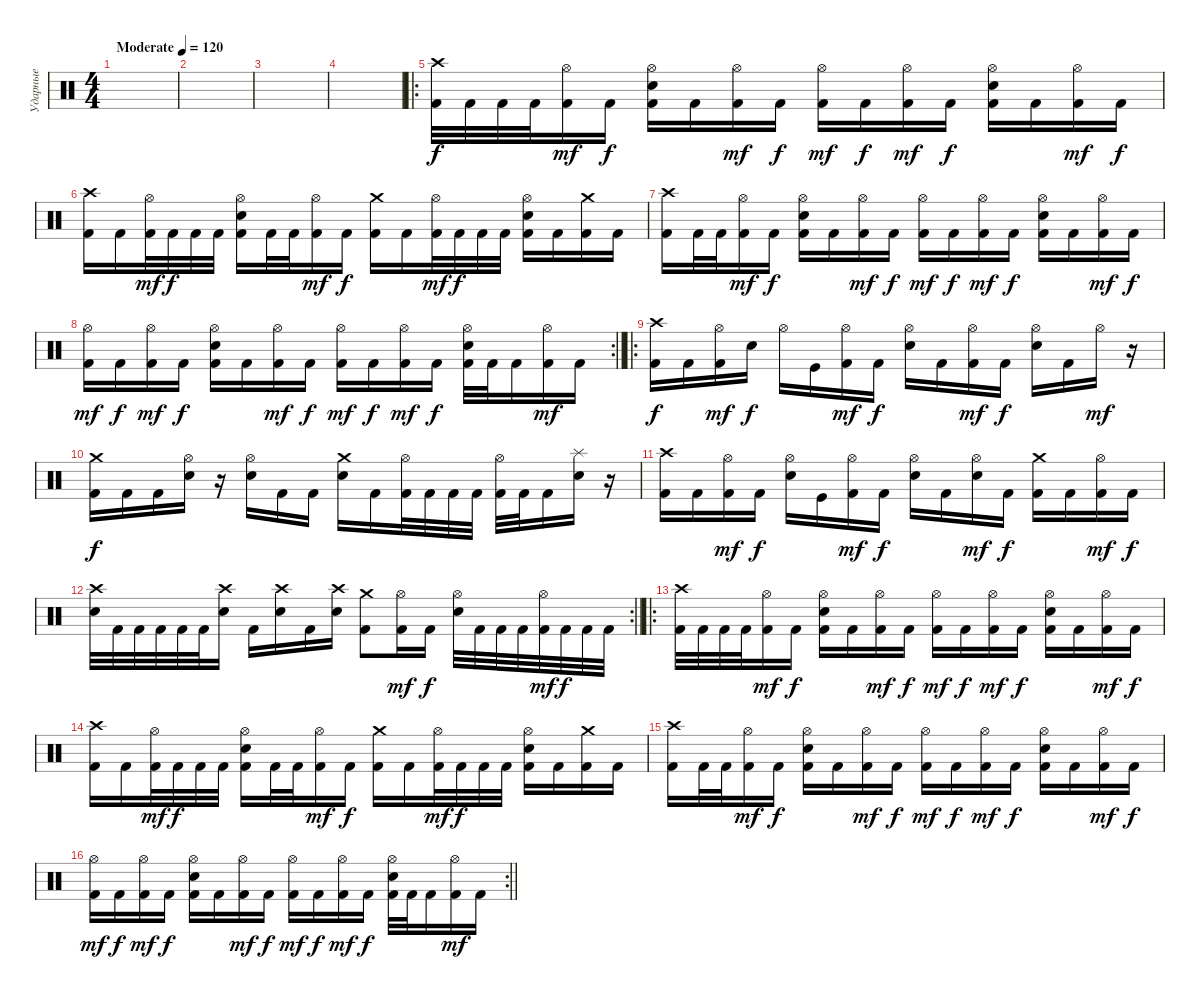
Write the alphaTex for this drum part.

\track ("Ударные" "Ударные") {instrument percussion}
\staff {score}
\articulation defaults
\ts (4 4)
\tempo (120 "Moderate")
\clef neutral
\ks c
|
|
|
|
\ro
("Crash high (hit)" "Kick (hit) 2").32 "Kick (hit) 2".32 "Kick (hit) 2".32 "Kick (hit) 2".32 ("Hi-Hat (open)" "Kick (hit) 2").16{dy mf} "Kick (hit) 2".16{dy f} ("Hi-Hat (open)" "Electric Snare (hit)" "Kick (hit) 2").16 "Kick (hit) 2".16 ("Hi-Hat (open)" "Kick (hit) 2").16{dy mf} "Kick (hit) 2".16{dy f} ("Hi-Hat (open)" "Kick (hit) 2").16{dy mf} "Kick (hit) 2".16{dy f} ("Hi-Hat (open)" "Kick (hit) 2").16{dy mf} "Kick (hit) 2".16{dy f} ("Hi-Hat (open)" "Electric Snare (hit)" "Kick (hit) 2").16 "Kick (hit) 2".16 ("Hi-Hat (open)" "Kick (hit) 2").16{dy mf} "Kick (hit) 2".16{dy f} |
("Crash high (hit)" "Kick (hit) 2").16 "Kick (hit) 2".16 ("Hi-Hat (open)" "Kick (hit) 2").32{dy mf} "Kick (hit) 2".32{dy f} "Kick (hit) 2".32 "Kick (hit) 2".32 ("Hi-Hat (open)" "Electric Snare (hit)" "Kick (hit) 2").16 "Kick (hit) 2".32 "Kick (hit) 2".32 ("Hi-Hat (open)" "Kick (hit) 2").16{dy mf} "Kick (hit) 2".16{dy f} ("Crash medium (hit)" "Kick (hit) 2").16 "Kick (hit) 2".16 ("Hi-Hat (open)" "Kick (hit) 2").32{dy mf} "Kick (hit) 2".32{dy f} "Kick (hit) 2".32 "Kick (hit) 2".32 ("Hi-Hat (open)" "Electric Snare (hit)" "Kick (hit) 2").16 "Kick (hit) 2".16 ("Crash medium (hit)" "Kick (hit) 2").16 "Kick (hit) 2".16 |
("Crash high (hit)" "Kick (hit) 2").16 "Kick (hit) 2".32 "Kick (hit) 2".32 ("Hi-Hat (open)" "Kick (hit) 2").16{dy mf} "Kick (hit) 2".16{dy f} ("Hi-Hat (open)" "Electric Snare (hit)" "Kick (hit) 2").16 "Kick (hit) 2".16 ("Hi-Hat (open)" "Kick (hit) 2").16{dy mf} "Kick (hit) 2".16{dy f} ("Hi-Hat (open)" "Kick (hit) 2").16{dy mf} "Kick (hit) 2".16{dy f} ("Hi-Hat (open)" "Kick (hit) 2").16{dy mf} "Kick (hit) 2".16{dy f} ("Hi-Hat (open)" "Electric Snare (hit)" "Kick (hit) 2").16 "Kick (hit) 2".16 ("Hi-Hat (open)" "Kick (hit) 2").16{dy mf} "Kick (hit) 2".16{dy f} |
\rc 2
\barLineRight lightlight
("Hi-Hat (open)" "Kick (hit) 2").16{dy mf} "Kick (hit) 2".16{dy f} ("Hi-Hat (open)" "Kick (hit) 2").16{dy mf} "Kick (hit) 2".16{dy f} ("Hi-Hat (open)" "Electric Snare (hit)" "Kick (hit) 2").16 "Kick (hit) 2".16 ("Hi-Hat (open)" "Kick (hit) 2").16{dy mf} "Kick (hit) 2".16{dy f} ("Hi-Hat (open)" "Kick (hit) 2").16{dy mf} "Kick (hit) 2".16{dy f} ("Hi-Hat (open)" "Kick (hit) 2").16{dy mf} "Kick (hit) 2".16{dy f} ("Hi-Hat (open)" "Electric Snare (hit)" "Kick (hit) 2").32 "Kick (hit) 2".32 "Kick (hit) 2".16 ("Hi-Hat (open)" "Kick (hit) 2").16{dy mf} "Kick (hit) 2".16 |
\ro
("Crash high (hit)" "Kick (hit) 2").16{dy f} "Kick (hit) 2".16 ("Hi-Hat (open)" "Kick (hit) 2").16{dy mf} "Electric Snare (hit)".16{dy f} "Hi-Hat (open)".16 "Kick (hit)".16 ("Hi-Hat (open)" "Kick (hit) 2").16{dy mf} "Kick (hit) 2".16{dy f} ("Hi-Hat (open)" "Electric Snare (hit)").16 "Kick (hit) 2".16 ("Hi-Hat (open)" "Kick (hit) 2").16{dy mf} "Kick (hit) 2".16{dy f} ("Hi-Hat (open)" "Electric Snare (hit)").16 "Kick (hit) 2".16 "Hi-Hat (open)".16{dy mf} r.16 |
("Crash medium (hit)" "Kick (hit) 2").16{dy f} "Kick (hit) 2".16 "Kick (hit) 2".16 ("Hi-Hat (open)" "Electric Snare (hit)").16 r.16 ("Hi-Hat (open)" "Electric Snare (hit)").16 "Kick (hit) 2".16 "Kick (hit) 2".16 ("Crash medium (hit)" "Electric Snare (hit)").16 "Kick (hit) 2".16 ("Hi-Hat (open)" "Kick (hit) 2").32 "Kick (hit) 2".32 "Kick (hit) 2".32 "Kick (hit) 2".32 ("Hi-Hat (open)" "Kick (hit) 2").32 "Kick (hit) 2".32 "Kick (hit) 2".16 ("Splash (hit)" "Electric Snare (hit)").16 r.16 |
("Crash high (hit)" "Kick (hit) 2").16 "Kick (hit) 2".16 ("Hi-Hat (open)" "Kick (hit) 2").16{dy mf} "Kick (hit) 2".16{dy f} ("Hi-Hat (open)" "Electric Snare (hit)").16 "Kick (hit)".16 ("Hi-Hat (open)" "Kick (hit) 2").16{dy mf} "Kick (hit) 2".16{dy f} ("Hi-Hat (open)" "Electric Snare (hit)").16 "Kick (hit) 2".16 ("Hi-Hat (open)" "Electric Snare (hit)").16{dy mf} "Kick (hit) 2".16{dy f} ("Crash medium (hit)" "Kick (hit) 2").16 "Kick (hit) 2".16 ("Hi-Hat (open)" "Kick (hit) 2").16{dy mf} "Kick (hit) 2".16{dy f} |
\rc 2
\barLineRight lightlight
("Crash high (hit)" "Electric Snare (hit)").32 "Kick (hit) 2".32 "Kick (hit) 2".32 "Kick (hit) 2".32 "Kick (hit) 2".32 "Kick (hit) 2".32 ("Crash high (hit)" "Electric Snare (hit)").16 "Kick (hit) 2".16 ("Crash high (hit)" "Electric Snare (hit)").16 "Kick (hit) 2".16 ("Crash high (hit)" "Electric Snare (hit)").16 ("Crash medium (hit)" "Kick (hit) 2").8 ("Hi-Hat (open)" "Kick (hit) 2").16{dy mf} "Kick (hit) 2".16{dy f} ("Hi-Hat (open)" "Electric Snare (hit)").32 "Kick (hit) 2".32 "Kick (hit) 2".32 "Kick (hit) 2".32 ("Hi-Hat (open)" "Kick (hit) 2").32{dy mf} "Kick (hit) 2".32{dy f} "Kick (hit) 2".32 "Kick (hit) 2".32 |
\ro
("Crash high (hit)" "Kick (hit) 2").32 "Kick (hit) 2".32 "Kick (hit) 2".32 "Kick (hit) 2".32 ("Hi-Hat (open)" "Kick (hit) 2").16{dy mf} "Kick (hit) 2".16{dy f} ("Hi-Hat (open)" "Electric Snare (hit)" "Kick (hit) 2").16 "Kick (hit) 2".16 ("Hi-Hat (open)" "Kick (hit) 2").16{dy mf} "Kick (hit) 2".16{dy f} ("Hi-Hat (open)" "Kick (hit) 2").16{dy mf} "Kick (hit) 2".16{dy f} ("Hi-Hat (open)" "Kick (hit) 2").16{dy mf} "Kick (hit) 2".16{dy f} ("Hi-Hat (open)" "Electric Snare (hit)" "Kick (hit) 2").16 "Kick (hit) 2".16 ("Hi-Hat (open)" "Kick (hit) 2").16{dy mf} "Kick (hit) 2".16{dy f} |
("Crash high (hit)" "Kick (hit) 2").16 "Kick (hit) 2".16 ("Hi-Hat (open)" "Kick (hit) 2").32{dy mf} "Kick (hit) 2".32{dy f} "Kick (hit) 2".32 "Kick (hit) 2".32 ("Hi-Hat (open)" "Electric Snare (hit)" "Kick (hit) 2").16 "Kick (hit) 2".32 "Kick (hit) 2".32 ("Hi-Hat (open)" "Kick (hit) 2").16{dy mf} "Kick (hit) 2".16{dy f} ("Crash medium (hit)" "Kick (hit) 2").16 "Kick (hit) 2".16 ("Hi-Hat (open)" "Kick (hit) 2").32{dy mf} "Kick (hit) 2".32{dy f} "Kick (hit) 2".32 "Kick (hit) 2".32 ("Hi-Hat (open)" "Electric Snare (hit)" "Kick (hit) 2").16 "Kick (hit) 2".16 ("Crash medium (hit)" "Kick (hit) 2").16 "Kick (hit) 2".16 |
("Crash high (hit)" "Kick (hit) 2").16 "Kick (hit) 2".32 "Kick (hit) 2".32 ("Hi-Hat (open)" "Kick (hit) 2").16{dy mf} "Kick (hit) 2".16{dy f} ("Hi-Hat (open)" "Electric Snare (hit)" "Kick (hit) 2").16 "Kick (hit) 2".16 ("Hi-Hat (open)" "Kick (hit) 2").16{dy mf} "Kick (hit) 2".16{dy f} ("Hi-Hat (open)" "Kick (hit) 2").16{dy mf} "Kick (hit) 2".16{dy f} ("Hi-Hat (open)" "Kick (hit) 2").16{dy mf} "Kick (hit) 2".16{dy f} ("Hi-Hat (open)" "Electric Snare (hit)" "Kick (hit) 2").16 "Kick (hit) 2".16 ("Hi-Hat (open)" "Kick (hit) 2").16{dy mf} "Kick (hit) 2".16{dy f} |
\rc 2
\barLineRight lightlight
("Hi-Hat (open)" "Kick (hit) 2").16{dy mf} "Kick (hit) 2".16{dy f} ("Hi-Hat (open)" "Kick (hit) 2").16{dy mf} "Kick (hit) 2".16{dy f} ("Hi-Hat (open)" "Electric Snare (hit)" "Kick (hit) 2").16 "Kick (hit) 2".16 ("Hi-Hat (open)" "Kick (hit) 2").16{dy mf} "Kick (hit) 2".16{dy f} ("Hi-Hat (open)" "Kick (hit) 2").16{dy mf} "Kick (hit) 2".16{dy f} ("Hi-Hat (open)" "Kick (hit) 2").16{dy mf} "Kick (hit) 2".16{dy f} ("Hi-Hat (open)" "Electric Snare (hit)" "Kick (hit) 2").32 "Kick (hit) 2".32 "Kick (hit) 2".16 ("Hi-Hat (open)" "Kick (hit) 2").16{dy mf} "Kick (hit) 2".16
